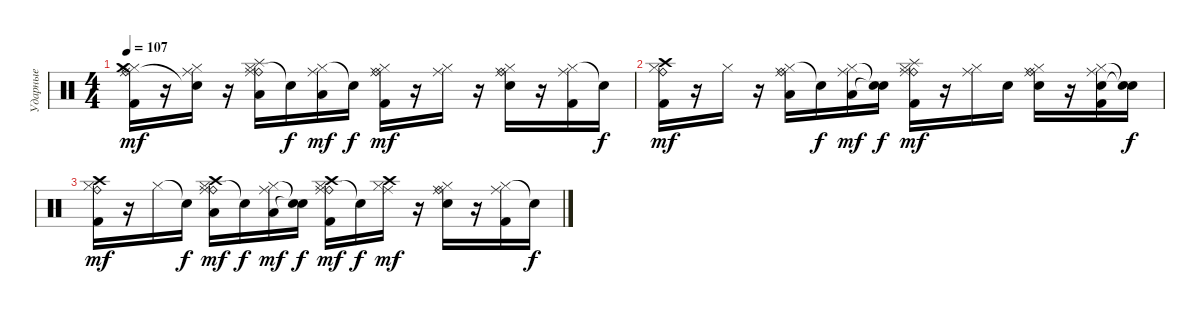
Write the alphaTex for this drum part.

\track ("Ударные" "Ударные") {instrument percussion}
\staff {score}
\articulation defaults
\ts (4 4)
\tempo 107
\clef neutral
\ks c
("Hi-Hat (closed)" "Ride (bell)" "Ride (middle)" "Crash medium (hit)" "Kick (hit) 2").16{dy mf} r.16 ("Hi-Hat (closed)" "Ride (middle)" "Snare (hit)"{t}).16 r.16 ("Hi-Hat (closed)" "Ride (bell)" "Low Tom (hit)" "Ride (middle)" "Splash (hit)").16 "Snare (hit)"{t}.16{dy f} ("Hi-Hat (closed)" "Low Tom (hit)" "Ride (middle)").16{dy mf} "Snare (hit)"{t}.16{dy f} ("Hi-Hat (closed)" "Ride (bell)" "Ride (middle)" "Kick (hit) 2").16{dy mf} r.16 ("Hi-Hat (closed)" "Ride (middle)").16 r.16 ("Hi-Hat (closed)" "Ride (bell)" "Electric Snare (hit)" "Ride (middle)").16 r.16 ("Hi-Hat (closed)" "Ride (middle)" "Kick (hit) 2").16 "Snare (hit)"{t}.16{dy f} |
("Hi-Hat (closed)" "Ride (bell)" "Crash high (hit)" "Kick (hit) 2").16{dy mf} r.16 "Hi-Hat (closed)".16 r.16 ("Hi-Hat (closed)" "Ride (bell)" "Low Tom (hit)" "Ride (middle)").16 "Snare (hit)"{t}.16{dy f} ("Hi-Hat (closed)" "Low Tom (hit)" "Ride (middle)").16{dy mf} ("Snare (hit)"{t} "Snare (hit)"{t}).16{dy f} ("Hi-Hat (closed)" "Ride (bell)" "Ride (middle)" "Splash (hit)" "Kick (hit) 2").16{dy mf} r.16 ("Hi-Hat (closed)" "Ride (middle)").16 "Electric Snare (hit)".16 ("Hi-Hat (closed)" "Ride (bell)" "Electric Snare (hit)" "Ride (middle)").16 r.16 ("Hi-Hat (closed)" "Electric Snare (hit)" "Ride (middle)" "Kick (hit) 2").16 ("Snare (hit)"{t} "Snare (hit)"{t}).16{dy f} |
("Hi-Hat (closed)" "Ride (bell)" "Crash high (hit)" "Kick (hit) 2").16{dy mf} r.16 "Hi-Hat (closed)".16 "Snare (hit)"{t}.16{dy f} ("Hi-Hat (closed)" "Ride (bell)" "Low Tom (hit)" "Ride (middle)" "Crash high (hit)").16{dy mf} "Snare (hit)"{t}.16{dy f} ("Hi-Hat (closed)" "Low Tom (hit)" "Ride (middle)").16{dy mf} ("Snare (hit)"{t} "Snare (hit)"{t}).16{dy f} ("Hi-Hat (closed)" "Ride (bell)" "Ride (middle)" "Crash high (hit)" "Kick (hit) 2").16{dy mf} "Snare (hit)"{t}.16{dy f} ("Hi-Hat (closed)" "Ride (middle)" "Crash high (hit)").16{dy mf} r.16 ("Hi-Hat (closed)" "Ride (bell)" "Electric Snare (hit)" "Ride (middle)").16 r.16 ("Hi-Hat (closed)" "Ride (middle)" "Kick (hit) 2").16 "Snare (hit)"{t}.16{dy f}
